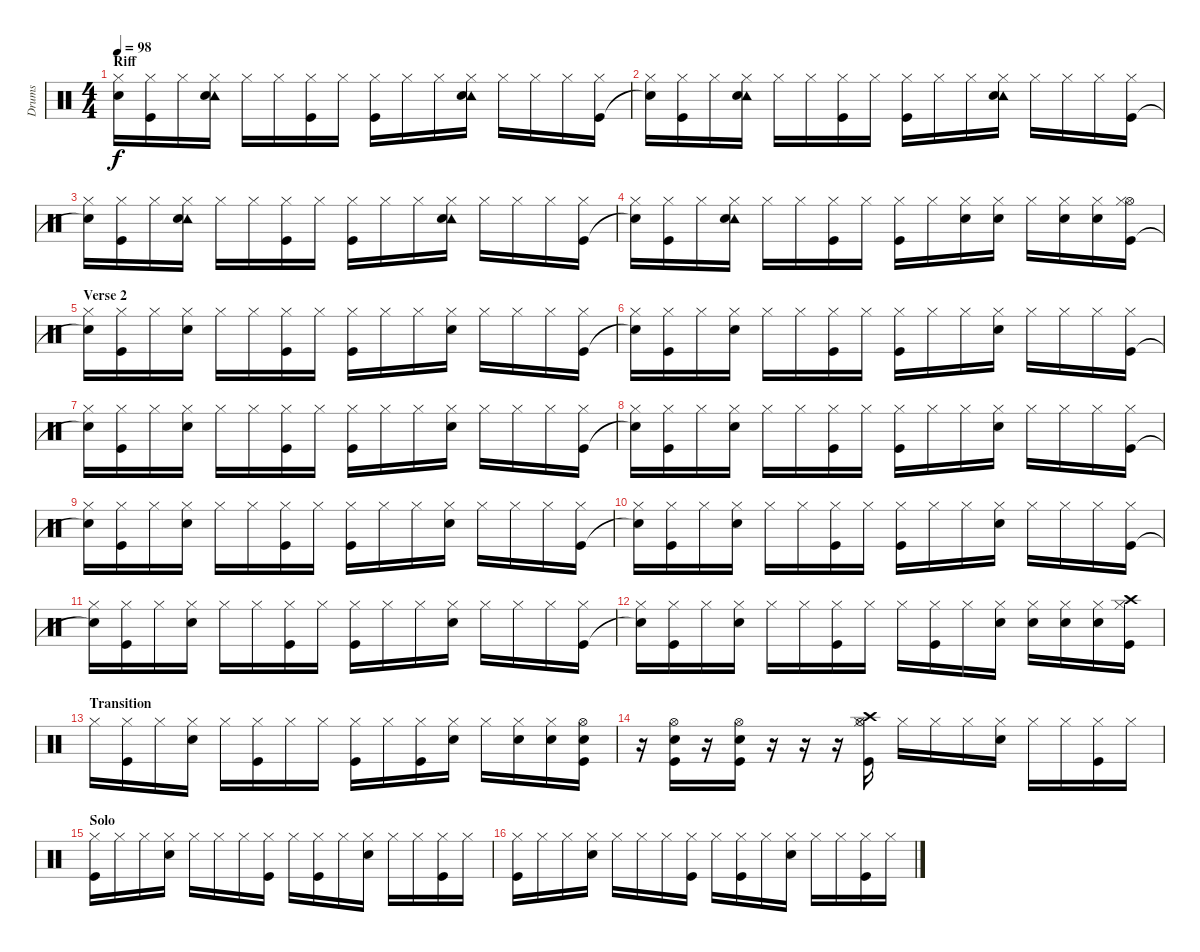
\track ("Drums" "Drums") {instrument percussion}
\staff {score}
\articulation defaults
\ts (4 4)
\section ("" "Riff")
\tempo 98
\clef neutral
\ks c
("Snare (hit)"{t} "Hi-Hat (closed)").16{dy f} ("Kick (hit)" "Hi-Hat (closed)").16 "Hi-Hat (closed)".16 ("Tambourine (hit)" "Electric Snare (hit)" "Hi-Hat (closed)").16 "Hi-Hat (closed)".16 "Hi-Hat (closed)".16 ("Kick (hit)" "Hi-Hat (closed)").16 "Hi-Hat (closed)".16 ("Kick (hit)" "Hi-Hat (closed)").16 "Hi-Hat (closed)".16 "Hi-Hat (closed)".16 ("Tambourine (hit)" "Electric Snare (hit)" "Hi-Hat (closed)").16 "Hi-Hat (closed)".16 "Hi-Hat (closed)".16 "Hi-Hat (closed)".16 ("Kick (hit)" "Hi-Hat (closed)").16 |
("Snare (hit)"{t} "Hi-Hat (closed)").16 ("Kick (hit)" "Hi-Hat (closed)").16 "Hi-Hat (closed)".16 ("Tambourine (hit)" "Electric Snare (hit)" "Hi-Hat (closed)").16 "Hi-Hat (closed)".16 "Hi-Hat (closed)".16 ("Kick (hit)" "Hi-Hat (closed)").16 "Hi-Hat (closed)".16 ("Kick (hit)" "Hi-Hat (closed)").16 "Hi-Hat (closed)".16 "Hi-Hat (closed)".16 ("Tambourine (hit)" "Electric Snare (hit)" "Hi-Hat (closed)").16 "Hi-Hat (closed)".16 "Hi-Hat (closed)".16 "Hi-Hat (closed)".16 ("Kick (hit)" "Hi-Hat (closed)").16 |
("Snare (hit)"{t} "Hi-Hat (closed)").16 ("Kick (hit)" "Hi-Hat (closed)").16 "Hi-Hat (closed)".16 ("Tambourine (hit)" "Electric Snare (hit)" "Hi-Hat (closed)").16 "Hi-Hat (closed)".16 "Hi-Hat (closed)".16 ("Kick (hit)" "Hi-Hat (closed)").16 "Hi-Hat (closed)".16 ("Kick (hit)" "Hi-Hat (closed)").16 "Hi-Hat (closed)".16 "Hi-Hat (closed)".16 ("Tambourine (hit)" "Electric Snare (hit)" "Hi-Hat (closed)").16 "Hi-Hat (closed)".16 "Hi-Hat (closed)".16 "Hi-Hat (closed)".16 ("Kick (hit)" "Hi-Hat (closed)").16 |
("Snare (hit)"{t} "Hi-Hat (closed)").16 ("Kick (hit)" "Hi-Hat (closed)").16 "Hi-Hat (closed)".16 ("Tambourine (hit)" "Electric Snare (hit)" "Hi-Hat (closed)").16 "Hi-Hat (closed)".16 "Hi-Hat (closed)".16 ("Kick (hit)" "Hi-Hat (closed)").16 "Hi-Hat (closed)".16 ("Kick (hit)" "Hi-Hat (closed)").16 "Hi-Hat (closed)".16 ("Electric Snare (hit)" "Hi-Hat (closed)").16 ("Electric Snare (hit)" "Hi-Hat (closed)").16 "Hi-Hat (closed)".16 ("Electric Snare (hit)" "Hi-Hat (closed)").16 ("Electric Snare (hit)" "Hi-Hat (closed)").16 ("Kick (hit)" "Hi-Hat (open)" "Hi-Hat (closed)").16 |
\section ("" "Verse 2")
("Snare (hit)"{t} "Hi-Hat (closed)").16 ("Kick (hit)" "Hi-Hat (closed)").16 "Hi-Hat (closed)".16 ("Electric Snare (hit)" "Hi-Hat (closed)").16 "Hi-Hat (closed)".16 "Hi-Hat (closed)".16 ("Kick (hit)" "Hi-Hat (closed)").16 "Hi-Hat (closed)".16 ("Kick (hit)" "Hi-Hat (closed)").16 "Hi-Hat (closed)".16 "Hi-Hat (closed)".16 ("Electric Snare (hit)" "Hi-Hat (closed)").16 "Hi-Hat (closed)".16 "Hi-Hat (closed)".16 "Hi-Hat (closed)".16 ("Kick (hit)" "Hi-Hat (closed)").16 |
("Snare (hit)"{t} "Hi-Hat (closed)").16 ("Kick (hit)" "Hi-Hat (closed)").16 "Hi-Hat (closed)".16 ("Electric Snare (hit)" "Hi-Hat (closed)").16 "Hi-Hat (closed)".16 "Hi-Hat (closed)".16 ("Kick (hit)" "Hi-Hat (closed)").16 "Hi-Hat (closed)".16 ("Kick (hit)" "Hi-Hat (closed)").16 "Hi-Hat (closed)".16 "Hi-Hat (closed)".16 ("Electric Snare (hit)" "Hi-Hat (closed)").16 "Hi-Hat (closed)".16 "Hi-Hat (closed)".16 "Hi-Hat (closed)".16 ("Kick (hit)" "Hi-Hat (closed)").16 |
("Snare (hit)"{t} "Hi-Hat (closed)").16 ("Kick (hit)" "Hi-Hat (closed)").16 "Hi-Hat (closed)".16 ("Electric Snare (hit)" "Hi-Hat (closed)").16 "Hi-Hat (closed)".16 "Hi-Hat (closed)".16 ("Kick (hit)" "Hi-Hat (closed)").16 "Hi-Hat (closed)".16 ("Kick (hit)" "Hi-Hat (closed)").16 "Hi-Hat (closed)".16 "Hi-Hat (closed)".16 ("Electric Snare (hit)" "Hi-Hat (closed)").16 "Hi-Hat (closed)".16 "Hi-Hat (closed)".16 "Hi-Hat (closed)".16 ("Kick (hit)" "Hi-Hat (closed)").16 |
("Snare (hit)"{t} "Hi-Hat (closed)").16 ("Kick (hit)" "Hi-Hat (closed)").16 "Hi-Hat (closed)".16 ("Electric Snare (hit)" "Hi-Hat (closed)").16 "Hi-Hat (closed)".16 "Hi-Hat (closed)".16 ("Kick (hit)" "Hi-Hat (closed)").16 "Hi-Hat (closed)".16 ("Kick (hit)" "Hi-Hat (closed)").16 "Hi-Hat (closed)".16 "Hi-Hat (closed)".16 ("Electric Snare (hit)" "Hi-Hat (closed)").16 "Hi-Hat (closed)".16 "Hi-Hat (closed)".16 "Hi-Hat (closed)".16 ("Kick (hit)" "Hi-Hat (closed)").16 |
("Snare (hit)"{t} "Hi-Hat (closed)").16 ("Kick (hit)" "Hi-Hat (closed)").16 "Hi-Hat (closed)".16 ("Electric Snare (hit)" "Hi-Hat (closed)").16 "Hi-Hat (closed)".16 "Hi-Hat (closed)".16 ("Kick (hit)" "Hi-Hat (closed)").16 "Hi-Hat (closed)".16 ("Kick (hit)" "Hi-Hat (closed)").16 "Hi-Hat (closed)".16 "Hi-Hat (closed)".16 ("Electric Snare (hit)" "Hi-Hat (closed)").16 "Hi-Hat (closed)".16 "Hi-Hat (closed)".16 "Hi-Hat (closed)".16 ("Kick (hit)" "Hi-Hat (closed)").16 |
("Snare (hit)"{t} "Hi-Hat (closed)").16 ("Kick (hit)" "Hi-Hat (closed)").16 "Hi-Hat (closed)".16 ("Electric Snare (hit)" "Hi-Hat (closed)").16 "Hi-Hat (closed)".16 "Hi-Hat (closed)".16 ("Kick (hit)" "Hi-Hat (closed)").16 "Hi-Hat (closed)".16 ("Kick (hit)" "Hi-Hat (closed)").16 "Hi-Hat (closed)".16 "Hi-Hat (closed)".16 ("Electric Snare (hit)" "Hi-Hat (closed)").16 "Hi-Hat (closed)".16 "Hi-Hat (closed)".16 "Hi-Hat (closed)".16 ("Kick (hit)" "Hi-Hat (closed)").16 |
("Snare (hit)"{t} "Hi-Hat (closed)").16 ("Kick (hit)" "Hi-Hat (closed)").16 "Hi-Hat (closed)".16 ("Electric Snare (hit)" "Hi-Hat (closed)").16 "Hi-Hat (closed)".16 "Hi-Hat (closed)".16 ("Kick (hit)" "Hi-Hat (closed)").16 "Hi-Hat (closed)".16 ("Kick (hit)" "Hi-Hat (closed)").16 "Hi-Hat (closed)".16 "Hi-Hat (closed)".16 ("Electric Snare (hit)" "Hi-Hat (closed)").16 "Hi-Hat (closed)".16 "Hi-Hat (closed)".16 "Hi-Hat (closed)".16 ("Kick (hit)" "Hi-Hat (closed)").16 |
("Snare (hit)"{t} "Hi-Hat (closed)").16 ("Kick (hit)" "Hi-Hat (closed)").16 "Hi-Hat (closed)".16 ("Electric Snare (hit)" "Hi-Hat (closed)").16 "Hi-Hat (closed)".16 "Hi-Hat (closed)".16 ("Kick (hit)" "Hi-Hat (closed)").16 "Hi-Hat (closed)".16 "Hi-Hat (closed)".16 ("Kick (hit)" "Hi-Hat (closed)").16 "Hi-Hat (closed)".16 ("Electric Snare (hit)" "Hi-Hat (closed)").16 ("Electric Snare (hit)" "Hi-Hat (closed)").16 ("Electric Snare (hit)" "Hi-Hat (closed)").16 ("Electric Snare (hit)" "Hi-Hat (closed)").16 ("Kick (hit)" "Crash high (hit)" "Hi-Hat (closed)").16 |
\section ("" "Transition")
"Hi-Hat (closed)".16 ("Kick (hit)" "Hi-Hat (closed)").16 "Hi-Hat (closed)".16 ("Electric Snare (hit)" "Hi-Hat (closed)").16 "Hi-Hat (closed)".16 ("Kick (hit)" "Hi-Hat (closed)").16 "Hi-Hat (closed)".16 "Hi-Hat (closed)".16 ("Kick (hit)" "Hi-Hat (closed)").16 "Hi-Hat (closed)".16 ("Kick (hit)" "Hi-Hat (closed)").16 ("Electric Snare (hit)" "Hi-Hat (closed)").16 "Hi-Hat (closed)".16 ("Electric Snare (hit)" "Hi-Hat (closed)").16 ("Electric Snare (hit)" "Hi-Hat (closed)").16 ("Kick (hit)" "Electric Snare (hit)" "Hi-Hat (open)").16 |
r.16 ("Kick (hit)" "Electric Snare (hit)" "Hi-Hat (open)").16 r.16 ("Kick (hit)" "Electric Snare (hit)" "Hi-Hat (open)").16 r.16 r.16 r.16 ("Kick (hit)" "Crash high (hit)" "Hi-Hat (open)" "Hi-Hat (closed)").16 "Hi-Hat (closed)".16 "Hi-Hat (closed)".16 "Hi-Hat (closed)".16 ("Electric Snare (hit)" "Hi-Hat (closed)").16 "Hi-Hat (closed)".16 "Hi-Hat (closed)".16 ("Kick (hit)" "Hi-Hat (closed)").16 "Hi-Hat (closed)".16 |
\section ("" "Solo")
("Kick (hit)" "Hi-Hat (closed)").16 "Hi-Hat (closed)".16 "Hi-Hat (closed)".16 ("Electric Snare (hit)" "Hi-Hat (closed)").16 "Hi-Hat (closed)".16 "Hi-Hat (closed)".16 "Hi-Hat (closed)".16 ("Kick (hit)" "Hi-Hat (closed)").16 "Hi-Hat (closed)".16 ("Kick (hit)" "Hi-Hat (closed)").16 "Hi-Hat (closed)".16 ("Electric Snare (hit)" "Hi-Hat (closed)").16 "Hi-Hat (closed)".16 "Hi-Hat (closed)".16 ("Kick (hit)" "Hi-Hat (closed)").16 "Hi-Hat (closed)".16 |
("Kick (hit)" "Hi-Hat (closed)").16 "Hi-Hat (closed)".16 "Hi-Hat (closed)".16 ("Electric Snare (hit)" "Hi-Hat (closed)").16 "Hi-Hat (closed)".16 "Hi-Hat (closed)".16 "Hi-Hat (closed)".16 ("Kick (hit)" "Hi-Hat (closed)").16 "Hi-Hat (closed)".16 ("Kick (hit)" "Hi-Hat (closed)").16 "Hi-Hat (closed)".16 ("Electric Snare (hit)" "Hi-Hat (closed)").16 "Hi-Hat (closed)".16 "Hi-Hat (closed)".16 ("Kick (hit)" "Hi-Hat (closed)").16 "Hi-Hat (closed)".16
